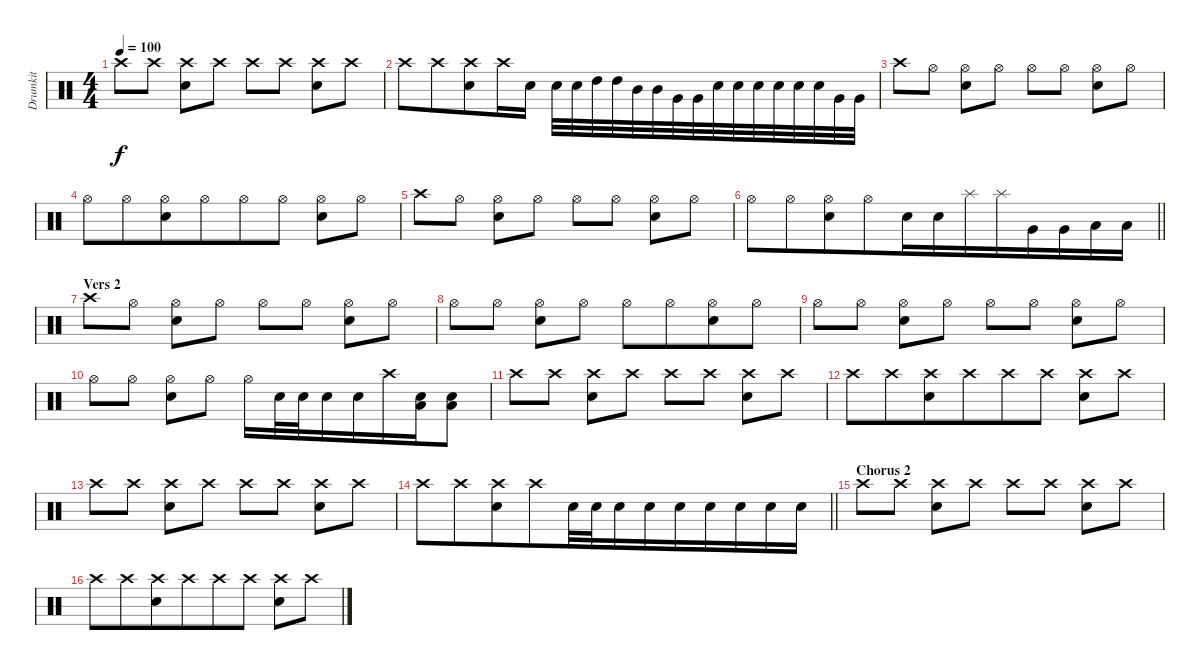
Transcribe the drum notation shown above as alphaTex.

\track ("Drumkit" "Drumkit") {instrument percussion}
\staff {score}
\articulation defaults
\ts (4 4)
\tempo 100
\clef neutral
\ks c "Crash high (hit)".8{dy f} "Crash high (hit)".8
("Crash high (hit)" "Electric Snare (hit)").8{beam merge} "Crash high (hit)".8 "Crash high (hit)".8 "Crash high (hit)".8 ("Crash high (hit)" "Electric Snare (hit)").8{beam merge} "Crash high (hit)".8 |
"Crash high (hit)".8{beam merge} "Crash high (hit)".8{beam merge} ("Crash high (hit)" "Electric Snare (hit)").8{beam merge} "Crash high (hit)".16{beam merge} "Electric Snare (hit)".16 "Electric Snare (hit)".32{beam merge} "Electric Snare (hit)".32 "High Tom (hit)".32{beam merge} "High Tom (hit)".32{beam merge} "Mid Tom (hit)".32 "Mid Tom (hit)".32{beam merge} "Very Low Tom (hit)".32{beam merge} "Very Low Tom (hit)".32{beam merge} "Electric Snare (hit)".32 "Electric Snare (hit)".32{beam merge} "Electric Snare (hit)".32{beam merge} "Electric Snare (hit)".32 "Electric Snare (hit)".32 "Electric Snare (hit)".32 "Very Low Tom (hit)".32{beam merge} "Very Low Tom (hit)".32 |
"Crash high (hit)".8 "Hi-Hat (open)".8 ("Hi-Hat (open)" "Electric Snare (hit)").8{beam merge} "Hi-Hat (open)".8 "Hi-Hat (open)".8 "Hi-Hat (open)".8 ("Hi-Hat (open)" "Electric Snare (hit)").8{beam merge} "Hi-Hat (open)".8 |
"Hi-Hat (open)".8{beam merge} "Hi-Hat (open)".8{beam merge} ("Hi-Hat (open)" "Electric Snare (hit)").8{beam merge} "Hi-Hat (open)".8{beam merge} "Hi-Hat (open)".8 "Hi-Hat (open)".8 ("Hi-Hat (open)" "Electric Snare (hit)").8 "Hi-Hat (open)".8 |
"Crash high (hit)".8 "Hi-Hat (open)".8 ("Hi-Hat (open)" "Electric Snare (hit)").8{beam merge} "Hi-Hat (open)".8 "Hi-Hat (open)".8 "Hi-Hat (open)".8 ("Hi-Hat (open)" "Electric Snare (hit)").8{beam merge} "Hi-Hat (open)".8 |
\barLineRight lightlight "Hi-Hat (open)".8{beam merge} "Hi-Hat (open)".8{beam merge}
("Hi-Hat (open)" "Electric Snare (hit)").8{beam merge} "Hi-Hat (open)".8{beam merge} "Electric Snare (hit)".16 "Electric Snare (hit)".16 "Splash (hit)".16 "Splash (hit)".16{beam merge} "Very Low Tom (hit)".16{beam merge} "Very Low Tom (hit)".16 "Low Floor Tom (hit)".16{beam merge} "Low Floor Tom (hit)".16 |
\section ("" "Vers 2")
"Crash high (hit)".8{beam merge} "Hi-Hat (open)".8 ("Hi-Hat (open)" "Electric Snare (hit)").8 "Hi-Hat (open)".8 "Hi-Hat (open)".8{beam merge} "Hi-Hat (open)".8 ("Hi-Hat (open)" "Electric Snare (hit)").8{beam merge} "Hi-Hat (open)".8 |
"Hi-Hat (open)".8{beam merge} "Hi-Hat (open)".8 ("Hi-Hat (open)" "Electric Snare (hit)").8 "Hi-Hat (open)".8 "Hi-Hat (open)".8{beam merge} "Hi-Hat (open)".8{beam merge} ("Hi-Hat (open)" "Electric Snare (hit)").8{beam merge} "Hi-Hat (open)".8 |
"Hi-Hat (open)".8 "Hi-Hat (open)".8 ("Hi-Hat (open)" "Electric Snare (hit)").8 "Hi-Hat (open)".8 "Hi-Hat (open)".8 "Hi-Hat (open)".8 ("Hi-Hat (open)" "Electric Snare (hit)").8{beam merge} "Hi-Hat (open)".8 |
"Hi-Hat (open)".8 "Hi-Hat (open)".8 ("Hi-Hat (open)" "Electric Snare (hit)").8{beam merge} "Hi-Hat (open)".8 "Hi-Hat (open)".16 "Electric Snare (hit)".32{beam merge} "Electric Snare (hit)".32 "Electric Snare (hit)".16 "Electric Snare (hit)".16{beam merge} "Crash high (hit)".16 ("Low Floor Tom (hit)" "Electric Snare (hit)").16 ("Low Floor Tom (hit)" "Electric Snare (hit)").8 |
"Crash high (hit)".8 "Crash high (hit)".8 ("Crash high (hit)" "Electric Snare (hit)").8{beam merge} "Crash high (hit)".8 "Crash high (hit)".8 "Crash high (hit)".8 ("Crash high (hit)" "Electric Snare (hit)").8{beam merge} "Crash high (hit)".8 |
"Crash high (hit)".8{beam merge} "Crash high (hit)".8{beam merge} ("Crash high (hit)" "Electric Snare (hit)").8{beam merge} "Crash high (hit)".8{beam merge} "Crash high (hit)".8 "Crash high (hit)".8 ("Crash high (hit)" "Electric Snare (hit)").8 "Crash high (hit)".8 |
"Crash high (hit)".8 "Crash high (hit)".8 ("Crash high (hit)" "Electric Snare (hit)").8{beam merge} "Crash high (hit)".8 "Crash high (hit)".8 "Crash high (hit)".8 ("Crash high (hit)" "Electric Snare (hit)").8{beam merge} "Crash high (hit)".8 |
\barLineRight lightlight "Crash high (hit)".8{beam merge} "Crash high (hit)".8{beam merge}
("Crash high (hit)" "Electric Snare (hit)").8{beam merge} "Crash high (hit)".8{beam merge} "Electric Snare (hit)".32 "Electric Snare (hit)".32 "Electric Snare (hit)".16 "Electric Snare (hit)".16{beam merge} "Electric Snare (hit)".16{beam merge} "Electric Snare (hit)".16 "Electric Snare (hit)".16{beam merge} "Electric Snare (hit)".16{beam merge} "Electric Snare (hit)".16 |
\section ("" "Chorus 2")
"Crash high (hit)".8 "Crash high (hit)".8 ("Crash high (hit)" "Electric Snare (hit)").8{beam merge} "Crash high (hit)".8 "Crash high (hit)".8 "Crash high (hit)".8 ("Crash high (hit)" "Electric Snare (hit)").8{beam merge} "Crash high (hit)".8 |
"Crash high (hit)".8{beam merge} "Crash high (hit)".8{beam merge} ("Crash high (hit)" "Electric Snare (hit)").8{beam merge} "Crash high (hit)".8{beam merge} "Crash high (hit)".8 "Crash high (hit)".8 ("Crash high (hit)" "Electric Snare (hit)").8 "Crash high (hit)".8
